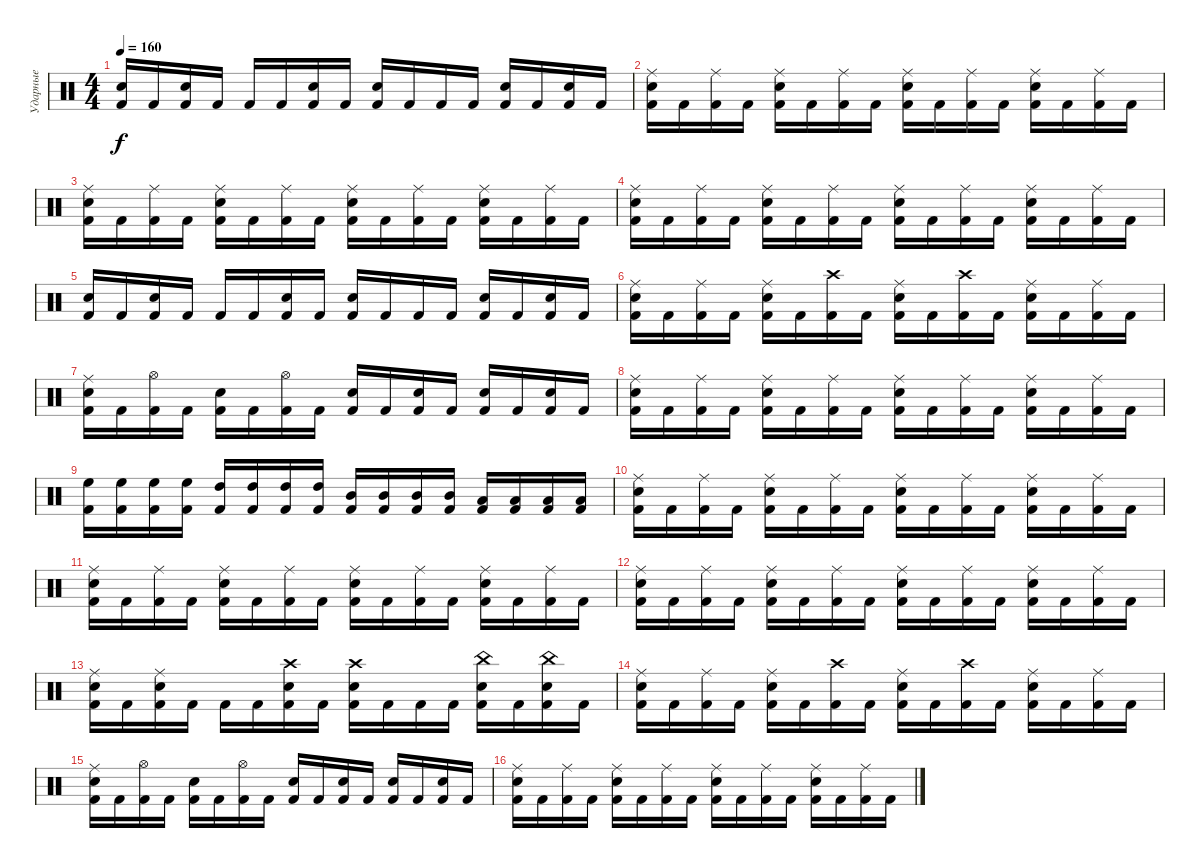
\track ("Ударные" "Ударные") {instrument percussion}
\staff {score}
\articulation defaults
\ts (4 4)
\tempo 160
\clef neutral
\ks c
("Kick (hit) 2" "Snare (hit) 2").16{dy f} "Kick (hit) 2".16 ("Kick (hit) 2" "Snare (hit) 2").16 "Kick (hit) 2".16 "Kick (hit) 2".16 "Kick (hit) 2".16 ("Kick (hit) 2" "Snare (hit) 2").16 "Kick (hit) 2".16 ("Kick (hit) 2" "Snare (hit) 2").16 "Kick (hit) 2".16 "Kick (hit) 2".16 "Kick (hit) 2".16 ("Kick (hit) 2" "Snare (hit) 2").16 "Kick (hit) 2".16 ("Kick (hit) 2" "Snare (hit) 2").16 "Kick (hit) 2".16 |
("Kick (hit) 2" "Ride (middle)" "Snare (hit) 2").16 "Kick (hit) 2".16 ("Kick (hit) 2" "Ride (middle)").16 "Kick (hit) 2".16 ("Kick (hit) 2" "Ride (middle)" "Snare (hit) 2").16 "Kick (hit) 2".16 ("Kick (hit) 2" "Ride (middle)").16 "Kick (hit) 2".16 ("Kick (hit) 2" "Ride (middle)" "Snare (hit) 2").16 "Kick (hit) 2".16 ("Kick (hit) 2" "Ride (middle)").16 "Kick (hit) 2".16 ("Kick (hit) 2" "Ride (middle)" "Snare (hit) 2").16 "Kick (hit) 2".16 ("Kick (hit) 2" "Ride (middle)").16 "Kick (hit) 2".16 |
("Kick (hit) 2" "Ride (middle)" "Snare (hit) 2").16 "Kick (hit) 2".16 ("Kick (hit) 2" "Ride (middle)").16 "Kick (hit) 2".16 ("Kick (hit) 2" "Ride (middle)" "Snare (hit) 2").16 "Kick (hit) 2".16 ("Kick (hit) 2" "Ride (middle)").16 "Kick (hit) 2".16 ("Kick (hit) 2" "Ride (middle)" "Snare (hit) 2").16 "Kick (hit) 2".16 ("Kick (hit) 2" "Ride (middle)").16 "Kick (hit) 2".16 ("Kick (hit) 2" "Ride (middle)" "Snare (hit) 2").16 "Kick (hit) 2".16 ("Kick (hit) 2" "Ride (middle)").16 "Kick (hit) 2".16 |
("Kick (hit) 2" "Ride (middle)" "Snare (hit) 2").16 "Kick (hit) 2".16 ("Kick (hit) 2" "Ride (middle)").16 "Kick (hit) 2".16 ("Kick (hit) 2" "Ride (middle)" "Snare (hit) 2").16 "Kick (hit) 2".16 ("Kick (hit) 2" "Ride (middle)").16 "Kick (hit) 2".16 ("Kick (hit) 2" "Ride (middle)" "Snare (hit) 2").16 "Kick (hit) 2".16 ("Kick (hit) 2" "Ride (middle)").16 "Kick (hit) 2".16 ("Kick (hit) 2" "Ride (middle)" "Snare (hit) 2").16 "Kick (hit) 2".16 ("Kick (hit) 2" "Ride (middle)").16 "Kick (hit) 2".16 |
("Kick (hit) 2" "Snare (hit) 2").16 "Kick (hit) 2".16 ("Kick (hit) 2" "Snare (hit) 2").16 "Kick (hit) 2".16 "Kick (hit) 2".16 "Kick (hit) 2".16 ("Kick (hit) 2" "Snare (hit) 2").16 "Kick (hit) 2".16 ("Kick (hit) 2" "Snare (hit) 2").16 "Kick (hit) 2".16 "Kick (hit) 2".16 "Kick (hit) 2".16 ("Kick (hit) 2" "Snare (hit) 2").16 "Kick (hit) 2".16 ("Kick (hit) 2" "Snare (hit) 2").16 "Kick (hit) 2".16 |
("Kick (hit) 2" "Ride (middle)" "Snare (hit) 2").16 "Kick (hit) 2".16 ("Kick (hit) 2" "Ride (middle)").16 "Kick (hit) 2".16 ("Kick (hit) 2" "Ride (middle)" "Snare (hit) 2").16 "Kick (hit) 2".16 ("Kick (hit) 2" "Crash high (hit)").16 "Kick (hit) 2".16 ("Kick (hit) 2" "Ride (middle)" "Snare (hit) 2").16 "Kick (hit) 2".16 ("Kick (hit) 2" "Crash high (hit)").16 "Kick (hit) 2".16 ("Kick (hit) 2" "Ride (middle)" "Snare (hit) 2").16 "Kick (hit) 2".16 ("Kick (hit) 2" "Ride (middle)").16 "Kick (hit) 2".16 |
("Kick (hit) 2" "Ride (middle)" "Snare (hit) 2").16 "Kick (hit) 2".16 ("Kick (hit) 2" "Hi-Hat (open)").16 "Kick (hit) 2".16 ("Kick (hit) 2" "Snare (hit) 2").16 "Kick (hit) 2".16 ("Kick (hit) 2" "Hi-Hat (open)").16 "Kick (hit) 2".16 ("Kick (hit) 2" "Snare (hit) 2").16 "Kick (hit) 2".16 ("Kick (hit) 2" "Snare (hit) 2").16 "Kick (hit) 2".16 ("Kick (hit) 2" "Snare (hit) 2").16 "Kick (hit) 2".16 ("Kick (hit) 2" "Snare (hit) 2").16 "Kick (hit) 2".16 |
("Kick (hit) 2" "Ride (middle)" "Snare (hit) 2").16 "Kick (hit) 2".16 ("Kick (hit) 2" "Ride (middle)").16 "Kick (hit) 2".16 ("Kick (hit) 2" "Ride (middle)" "Snare (hit) 2").16 "Kick (hit) 2".16 ("Kick (hit) 2" "Ride (middle)").16 "Kick (hit) 2".16 ("Kick (hit) 2" "Ride (middle)" "Snare (hit) 2").16 "Kick (hit) 2".16 ("Kick (hit) 2" "Ride (middle)").16 "Kick (hit) 2".16 ("Kick (hit) 2" "Ride (middle)" "Snare (hit) 2").16 "Kick (hit) 2".16 ("Kick (hit) 2" "Ride (middle)").16 "Kick (hit) 2".16 |
("Kick (hit) 2" "High Floor Tom (hit)").16 ("Kick (hit) 2" "High Floor Tom (hit)").16 ("Kick (hit) 2" "High Floor Tom (hit)").16 ("Kick (hit) 2" "High Floor Tom (hit)").16 ("Kick (hit) 2" "High Tom (hit)").16 ("Kick (hit) 2" "High Tom (hit)").16 ("Kick (hit) 2" "High Tom (hit)").16 ("Kick (hit) 2" "High Tom (hit)").16 ("Kick (hit) 2" "Mid Tom (hit)").16 ("Kick (hit) 2" "Mid Tom (hit)").16 ("Kick (hit) 2" "Mid Tom (hit)").16 ("Kick (hit) 2" "Mid Tom (hit)").16 ("Kick (hit) 2" "Low Tom (hit)").16 ("Kick (hit) 2" "Low Tom (hit)").16 ("Kick (hit) 2" "Low Tom (hit)").16 ("Kick (hit) 2" "Low Tom (hit)").16 |
("Kick (hit) 2" "Ride (middle)" "Snare (hit) 2").16 "Kick (hit) 2".16 ("Kick (hit) 2" "Ride (middle)").16 "Kick (hit) 2".16 ("Kick (hit) 2" "Ride (middle)" "Snare (hit) 2").16 "Kick (hit) 2".16 ("Kick (hit) 2" "Ride (middle)").16 "Kick (hit) 2".16 ("Kick (hit) 2" "Ride (middle)" "Snare (hit) 2").16 "Kick (hit) 2".16 ("Kick (hit) 2" "Ride (middle)").16 "Kick (hit) 2".16 ("Kick (hit) 2" "Ride (middle)" "Snare (hit) 2").16 "Kick (hit) 2".16 ("Kick (hit) 2" "Ride (middle)").16 "Kick (hit) 2".16 |
("Kick (hit) 2" "Ride (middle)" "Snare (hit) 2").16 "Kick (hit) 2".16 ("Kick (hit) 2" "Ride (middle)").16 "Kick (hit) 2".16 ("Kick (hit) 2" "Ride (middle)" "Snare (hit) 2").16 "Kick (hit) 2".16 ("Kick (hit) 2" "Ride (middle)").16 "Kick (hit) 2".16 ("Kick (hit) 2" "Ride (middle)" "Snare (hit) 2").16 "Kick (hit) 2".16 ("Kick (hit) 2" "Ride (middle)").16 "Kick (hit) 2".16 ("Kick (hit) 2" "Ride (middle)" "Snare (hit) 2").16 "Kick (hit) 2".16 ("Kick (hit) 2" "Ride (middle)").16 "Kick (hit) 2".16 |
("Kick (hit) 2" "Ride (middle)" "Snare (hit) 2").16 "Kick (hit) 2".16 ("Kick (hit) 2" "Ride (middle)").16 "Kick (hit) 2".16 ("Kick (hit) 2" "Ride (middle)" "Snare (hit) 2").16 "Kick (hit) 2".16 ("Kick (hit) 2" "Ride (middle)").16 "Kick (hit) 2".16 ("Kick (hit) 2" "Ride (middle)" "Snare (hit) 2").16 "Kick (hit) 2".16 ("Kick (hit) 2" "Ride (middle)").16 "Kick (hit) 2".16 ("Kick (hit) 2" "Ride (middle)" "Snare (hit) 2").16 "Kick (hit) 2".16 ("Kick (hit) 2" "Ride (middle)").16 "Kick (hit) 2".16 |
("Kick (hit) 2" "Snare (hit) 2" "Ride (middle)").16 "Kick (hit) 2".16 ("Kick (hit) 2" "Snare (hit) 2" "Ride (middle)").16 "Kick (hit) 2".16 "Kick (hit) 2".16 "Kick (hit) 2".16 ("Kick (hit) 2" "Snare (hit) 2" "Crash high (hit)").16 "Kick (hit) 2".16 ("Kick (hit) 2" "Snare (hit) 2" "Crash high (hit)").16 "Kick (hit) 2".16 "Kick (hit) 2".16 "Kick (hit) 2".16 ("Kick (hit) 2" "Snare (hit) 2" "China (hit)").16 "Kick (hit) 2".16 ("Kick (hit) 2" "Snare (hit) 2" "China (hit)").16 "Kick (hit) 2".16 |
("Kick (hit) 2" "Ride (middle)" "Snare (hit) 2").16 "Kick (hit) 2".16 ("Kick (hit) 2" "Ride (middle)").16 "Kick (hit) 2".16 ("Kick (hit) 2" "Ride (middle)" "Snare (hit) 2").16 "Kick (hit) 2".16 ("Kick (hit) 2" "Crash high (hit)").16 "Kick (hit) 2".16 ("Kick (hit) 2" "Ride (middle)" "Snare (hit) 2").16 "Kick (hit) 2".16 ("Kick (hit) 2" "Crash high (hit)").16 "Kick (hit) 2".16 ("Kick (hit) 2" "Ride (middle)" "Snare (hit) 2").16 "Kick (hit) 2".16 ("Kick (hit) 2" "Ride (middle)").16 "Kick (hit) 2".16 |
("Kick (hit) 2" "Ride (middle)" "Snare (hit) 2").16 "Kick (hit) 2".16 ("Kick (hit) 2" "Hi-Hat (open)").16 "Kick (hit) 2".16 ("Kick (hit) 2" "Snare (hit) 2").16 "Kick (hit) 2".16 ("Kick (hit) 2" "Hi-Hat (open)").16 "Kick (hit) 2".16 ("Kick (hit) 2" "Snare (hit) 2").16 "Kick (hit) 2".16 ("Kick (hit) 2" "Snare (hit) 2").16 "Kick (hit) 2".16 ("Kick (hit) 2" "Snare (hit) 2").16 "Kick (hit) 2".16 ("Kick (hit) 2" "Snare (hit) 2").16 "Kick (hit) 2".16 |
("Kick (hit) 2" "Ride (middle)" "Snare (hit) 2").16 "Kick (hit) 2".16 ("Kick (hit) 2" "Ride (middle)").16 "Kick (hit) 2".16 ("Kick (hit) 2" "Ride (middle)" "Snare (hit) 2").16 "Kick (hit) 2".16 ("Kick (hit) 2" "Ride (middle)").16 "Kick (hit) 2".16 ("Kick (hit) 2" "Ride (middle)" "Snare (hit) 2").16 "Kick (hit) 2".16 ("Kick (hit) 2" "Ride (middle)").16 "Kick (hit) 2".16 ("Kick (hit) 2" "Ride (middle)" "Snare (hit) 2").16 "Kick (hit) 2".16 ("Kick (hit) 2" "Ride (middle)").16 "Kick (hit) 2".16
